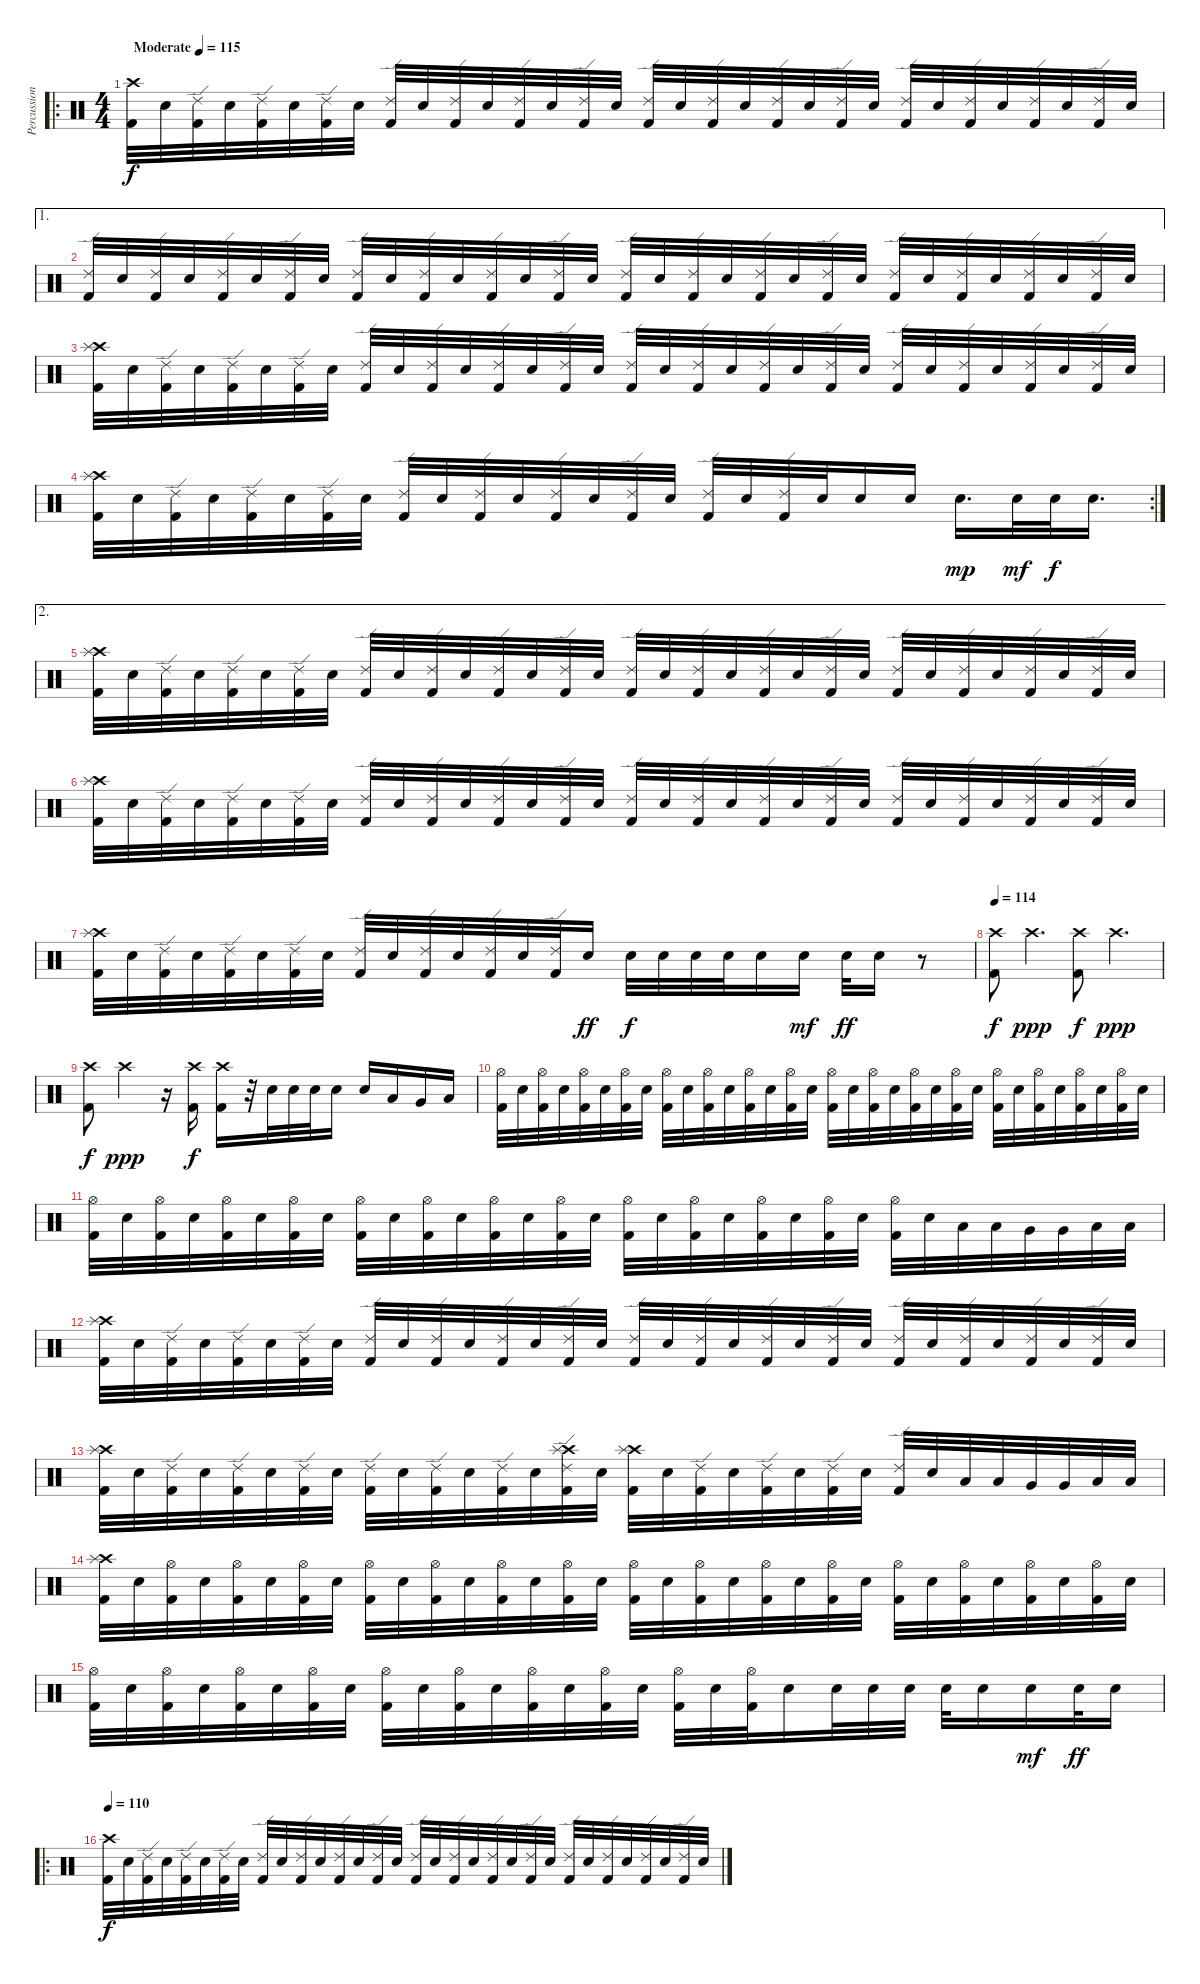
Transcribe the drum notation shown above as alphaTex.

\track ("Percussion" "Percussion") {instrument percussion}
\staff {score}
\articulation defaults
\ro
\ts (4 4)
\tempo (115 "Moderate")
\clef neutral
\ks c
("Crash high (hit)" "Kick (hit) 2").32{dy f} "Snare (hit) 2".32 ("Ride (edge) 2" "Kick (hit) 2").32 "Snare (hit) 2".32 ("Ride (edge) 2" "Kick (hit) 2").32 "Snare (hit) 2".32 ("Ride (edge) 2" "Kick (hit) 2").32 "Snare (hit) 2".32 ("Ride (edge) 2" "Kick (hit) 2").32 "Snare (hit) 2".32 ("Ride (edge) 2" "Kick (hit) 2").32 "Snare (hit) 2".32 ("Ride (edge) 2" "Kick (hit) 2").32 "Snare (hit) 2".32 ("Ride (edge) 2" "Kick (hit) 2").32 "Snare (hit) 2".32 ("Ride (edge) 2" "Kick (hit) 2").32 "Snare (hit) 2".32 ("Ride (edge) 2" "Kick (hit) 2").32 "Snare (hit) 2".32 ("Ride (edge) 2" "Kick (hit) 2").32 "Snare (hit) 2".32 ("Ride (edge) 2" "Kick (hit) 2").32 "Snare (hit) 2".32 ("Ride (edge) 2" "Kick (hit) 2").32 "Snare (hit) 2".32 ("Ride (edge) 2" "Kick (hit) 2").32 "Snare (hit) 2".32 ("Ride (edge) 2" "Kick (hit) 2").32 "Snare (hit) 2".32 ("Ride (edge) 2" "Kick (hit) 2").32 "Snare (hit) 2".32 |
\ae 1
("Ride (edge) 2" "Kick (hit) 2").32 "Snare (hit) 2".32 ("Ride (edge) 2" "Kick (hit) 2").32 "Snare (hit) 2".32 ("Ride (edge) 2" "Kick (hit) 2").32 "Snare (hit) 2".32 ("Ride (edge) 2" "Kick (hit) 2").32 "Snare (hit) 2".32 ("Ride (edge) 2" "Kick (hit) 2").32 "Snare (hit) 2".32 ("Ride (edge) 2" "Kick (hit) 2").32 "Snare (hit) 2".32 ("Ride (edge) 2" "Kick (hit) 2").32 "Snare (hit) 2".32 ("Ride (edge) 2" "Kick (hit) 2").32 "Snare (hit) 2".32 ("Ride (edge) 2" "Kick (hit) 2").32 "Snare (hit) 2".32 ("Ride (edge) 2" "Kick (hit) 2").32 "Snare (hit) 2".32 ("Ride (edge) 2" "Kick (hit) 2").32 "Snare (hit) 2".32 ("Ride (edge) 2" "Kick (hit) 2").32 "Snare (hit) 2".32 ("Ride (edge) 2" "Kick (hit) 2").32 "Snare (hit) 2".32 ("Ride (edge) 2" "Kick (hit) 2").32 "Snare (hit) 2".32 ("Ride (edge) 2" "Kick (hit) 2").32 "Snare (hit) 2".32 ("Ride (edge) 2" "Kick (hit) 2").32 "Snare (hit) 2".32 |
("Crash high (hit)" "Splash (hit)" "Kick (hit) 2").32 "Snare (hit) 2".32 ("Ride (edge) 2" "Kick (hit) 2").32 "Snare (hit) 2".32 ("Ride (edge) 2" "Kick (hit) 2").32 "Snare (hit) 2".32 ("Ride (edge) 2" "Kick (hit) 2").32 "Snare (hit) 2".32 ("Ride (edge) 2" "Kick (hit) 2").32 "Snare (hit) 2".32 ("Ride (edge) 2" "Kick (hit) 2").32 "Snare (hit) 2".32 ("Ride (edge) 2" "Kick (hit) 2").32 "Snare (hit) 2".32 ("Ride (edge) 2" "Kick (hit) 2").32 "Snare (hit) 2".32 ("Ride (edge) 2" "Kick (hit) 2").32 "Snare (hit) 2".32 ("Ride (edge) 2" "Kick (hit) 2").32 "Snare (hit) 2".32 ("Ride (edge) 2" "Kick (hit) 2").32 "Snare (hit) 2".32 ("Ride (edge) 2" "Kick (hit) 2").32 "Snare (hit) 2".32 ("Ride (edge) 2" "Kick (hit) 2").32 "Snare (hit) 2".32 ("Ride (edge) 2" "Kick (hit) 2").32 "Snare (hit) 2".32 ("Ride (edge) 2" "Kick (hit) 2").32 "Snare (hit) 2".32 ("Ride (edge) 2" "Kick (hit) 2").32 "Snare (hit) 2".32 |
\rc 2
("Crash high (hit)" "Splash (hit)" "Kick (hit) 2").32 "Snare (hit) 2".32 ("Ride (edge) 2" "Kick (hit) 2").32 "Snare (hit) 2".32 ("Ride (edge) 2" "Kick (hit) 2").32 "Snare (hit) 2".32 ("Ride (edge) 2" "Kick (hit) 2").32 "Snare (hit) 2".32 ("Ride (edge) 2" "Kick (hit) 2").32 "Snare (hit) 2".32 ("Ride (edge) 2" "Kick (hit) 2").32 "Snare (hit) 2".32 ("Ride (edge) 2" "Kick (hit) 2").32 "Snare (hit) 2".32 ("Ride (edge) 2" "Kick (hit) 2").32 "Snare (hit) 2".32 ("Ride (edge) 2" "Kick (hit) 2").32 "Snare (hit) 2".32 ("Ride (edge) 2" "Kick (hit) 2").32 "Snare (hit) 2".32 "Snare (hit) 2".16 "Snare (hit) 2".16 "Snare (hit) 2".16{d dy mp} "Snare (hit) 2".32{dy mf} "Snare (hit) 2".32{dy f} "Snare (hit) 2".16{d} |
\ae 2
("Crash high (hit)" "Splash (hit)" "Kick (hit) 2").32 "Snare (hit) 2".32 ("Ride (edge) 2" "Kick (hit) 2").32 "Snare (hit) 2".32 ("Ride (edge) 2" "Kick (hit) 2").32 "Snare (hit) 2".32 ("Ride (edge) 2" "Kick (hit) 2").32 "Snare (hit) 2".32 ("Ride (edge) 2" "Kick (hit) 2").32 "Snare (hit) 2".32 ("Ride (edge) 2" "Kick (hit) 2").32 "Snare (hit) 2".32 ("Ride (edge) 2" "Kick (hit) 2").32 "Snare (hit) 2".32 ("Ride (edge) 2" "Kick (hit) 2").32 "Snare (hit) 2".32 ("Ride (edge) 2" "Kick (hit) 2").32 "Snare (hit) 2".32 ("Ride (edge) 2" "Kick (hit) 2").32 "Snare (hit) 2".32 ("Ride (edge) 2" "Kick (hit) 2").32 "Snare (hit) 2".32 ("Ride (edge) 2" "Kick (hit) 2").32 "Snare (hit) 2".32 ("Ride (edge) 2" "Kick (hit) 2").32 "Snare (hit) 2".32 ("Ride (edge) 2" "Kick (hit) 2").32 "Snare (hit) 2".32 ("Ride (edge) 2" "Kick (hit) 2").32 "Snare (hit) 2".32 ("Ride (edge) 2" "Kick (hit) 2").32 "Snare (hit) 2".32 |
("Crash high (hit)" "Splash (hit)" "Kick (hit) 2").32 "Snare (hit) 2".32 ("Ride (edge) 2" "Kick (hit) 2").32 "Snare (hit) 2".32 ("Ride (edge) 2" "Kick (hit) 2").32 "Snare (hit) 2".32 ("Ride (edge) 2" "Kick (hit) 2").32 "Snare (hit) 2".32 ("Ride (edge) 2" "Kick (hit) 2").32 "Snare (hit) 2".32 ("Ride (edge) 2" "Kick (hit) 2").32 "Snare (hit) 2".32 ("Ride (edge) 2" "Kick (hit) 2").32 "Snare (hit) 2".32 ("Ride (edge) 2" "Kick (hit) 2").32 "Snare (hit) 2".32 ("Ride (edge) 2" "Kick (hit) 2").32 "Snare (hit) 2".32 ("Ride (edge) 2" "Kick (hit) 2").32 "Snare (hit) 2".32 ("Ride (edge) 2" "Kick (hit) 2").32 "Snare (hit) 2".32 ("Ride (edge) 2" "Kick (hit) 2").32 "Snare (hit) 2".32 ("Ride (edge) 2" "Kick (hit) 2").32 "Snare (hit) 2".32 ("Ride (edge) 2" "Kick (hit) 2").32 "Snare (hit) 2".32 ("Ride (edge) 2" "Kick (hit) 2").32 "Snare (hit) 2".32 ("Ride (edge) 2" "Kick (hit) 2").32 "Snare (hit) 2".32 |
("Crash high (hit)" "Splash (hit)" "Kick (hit) 2").32 "Snare (hit) 2".32 ("Ride (edge) 2" "Kick (hit) 2").32 "Snare (hit) 2".32 ("Ride (edge) 2" "Kick (hit) 2").32 "Snare (hit) 2".32 ("Ride (edge) 2" "Kick (hit) 2").32 "Snare (hit) 2".32 ("Ride (edge) 2" "Kick (hit) 2").32 "Snare (hit) 2".32 ("Ride (edge) 2" "Kick (hit) 2").32 "Snare (hit) 2".32 ("Ride (edge) 2" "Kick (hit) 2").32 "Snare (hit) 2".32 ("Ride (edge) 2" "Kick (hit) 2").32 "Snare (hit) 2".16{dy ff} "Snare (hit) 2".32{dy f} "Snare (hit) 2".32 "Snare (hit) 2".32 "Snare (hit) 2".32 "Snare (hit) 2".16 "Snare (hit) 2".16{dy mf} "Snare (hit) 2".32{dy ff} "Snare (hit) 2".16 r.8 |
\tempo 114
("Crash high (hit)" "Kick (hit) 2").8{dy f} "Crash high (hit)".4{d dy ppp} ("Crash high (hit)" "Kick (hit) 2").8{dy f} "Crash high (hit)".4{d dy ppp} |
("Crash high (hit)" "Kick (hit) 2").8{dy f} "Crash high (hit)".4{dy ppp} r.16 ("Crash high (hit)" "Kick (hit) 2").16{dy f} ("Crash high (hit)" "Kick (hit) 2").16 r.32 "Snare (hit) 2".32 "Snare (hit) 2".32 "Snare (hit) 2".32 "Snare (hit) 2".16 "Snare (hit) 2".16 "Low Tom (hit)".16 "Very Low Tom (hit)".16 "Low Floor Tom (hit)".16 |
("Hi-Hat (open)" "Kick (hit) 2").32 "Snare (hit) 2".32 ("Hi-Hat (open)" "Kick (hit) 2").32 "Snare (hit) 2".32 ("Hi-Hat (open)" "Kick (hit) 2").32 "Snare (hit) 2".32 ("Hi-Hat (open)" "Kick (hit) 2").32 "Snare (hit) 2".32 ("Hi-Hat (open)" "Kick (hit) 2").32 "Snare (hit) 2".32 ("Hi-Hat (open)" "Kick (hit) 2").32 "Snare (hit) 2".32 ("Hi-Hat (open)" "Kick (hit) 2").32 "Snare (hit) 2".32 ("Hi-Hat (open)" "Kick (hit) 2").32 "Snare (hit) 2".32 ("Hi-Hat (open)" "Kick (hit) 2").32 "Snare (hit) 2".32 ("Hi-Hat (open)" "Kick (hit) 2").32 "Snare (hit) 2".32 ("Hi-Hat (open)" "Kick (hit) 2").32 "Snare (hit) 2".32 ("Hi-Hat (open)" "Kick (hit) 2").32 "Snare (hit) 2".32 ("Hi-Hat (open)" "Kick (hit) 2").32 "Snare (hit) 2".32 ("Hi-Hat (open)" "Kick (hit) 2").32 "Snare (hit) 2".32 ("Hi-Hat (open)" "Kick (hit) 2").32 "Snare (hit) 2".32 ("Hi-Hat (open)" "Kick (hit) 2").32 "Snare (hit) 2".32 |
("Hi-Hat (open)" "Kick (hit) 2").32 "Snare (hit) 2".32 ("Hi-Hat (open)" "Kick (hit) 2").32 "Snare (hit) 2".32 ("Hi-Hat (open)" "Kick (hit) 2").32 "Snare (hit) 2".32 ("Hi-Hat (open)" "Kick (hit) 2").32 "Snare (hit) 2".32 ("Hi-Hat (open)" "Kick (hit) 2").32 "Snare (hit) 2".32 ("Hi-Hat (open)" "Kick (hit) 2").32 "Snare (hit) 2".32 ("Hi-Hat (open)" "Kick (hit) 2").32 "Snare (hit) 2".32 ("Hi-Hat (open)" "Kick (hit) 2").32 "Snare (hit) 2".32 ("Hi-Hat (open)" "Kick (hit) 2").32 "Snare (hit) 2".32 ("Hi-Hat (open)" "Kick (hit) 2").32 "Snare (hit) 2".32 ("Hi-Hat (open)" "Kick (hit) 2").32 "Snare (hit) 2".32 ("Hi-Hat (open)" "Kick (hit) 2").32 "Snare (hit) 2".32 ("Hi-Hat (open)" "Kick (hit) 2").32 "Snare (hit) 2".32 "Low Tom (hit)".32 "Low Tom (hit)".32 "Very Low Tom (hit)".32 "Very Low Tom (hit)".32 "Low Floor Tom (hit)".32 "Low Floor Tom (hit)".32 |
("Crash high (hit)" "Splash (hit)" "Kick (hit) 2").32 "Snare (hit) 2".32 ("Ride (edge) 2" "Kick (hit) 2").32 "Snare (hit) 2".32 ("Ride (edge) 2" "Kick (hit) 2").32 "Snare (hit) 2".32 ("Ride (edge) 2" "Kick (hit) 2").32 "Snare (hit) 2".32 ("Ride (edge) 2" "Kick (hit) 2").32 "Snare (hit) 2".32 ("Ride (edge) 2" "Kick (hit) 2").32 "Snare (hit) 2".32 ("Ride (edge) 2" "Kick (hit) 2").32 "Snare (hit) 2".32 ("Ride (edge) 2" "Kick (hit) 2").32 "Snare (hit) 2".32 ("Ride (edge) 2" "Kick (hit) 2").32 "Snare (hit) 2".32 ("Ride (edge) 2" "Kick (hit) 2").32 "Snare (hit) 2".32 ("Ride (edge) 2" "Kick (hit) 2").32 "Snare (hit) 2".32 ("Ride (edge) 2" "Kick (hit) 2").32 "Snare (hit) 2".32 ("Ride (edge) 2" "Kick (hit) 2").32 "Snare (hit) 2".32 ("Ride (edge) 2" "Kick (hit) 2").32 "Snare (hit) 2".32 ("Ride (edge) 2" "Kick (hit) 2").32 "Snare (hit) 2".32 ("Ride (edge) 2" "Kick (hit) 2").32 "Snare (hit) 2".32 |
("Crash high (hit)" "Splash (hit)" "Kick (hit) 2").32 "Snare (hit) 2".32 ("Ride (edge) 2" "Kick (hit) 2").32 "Snare (hit) 2".32 ("Ride (edge) 2" "Kick (hit) 2").32 "Snare (hit) 2".32 ("Ride (edge) 2" "Kick (hit) 2").32 "Snare (hit) 2".32 ("Ride (edge) 2" "Kick (hit) 2").32 "Snare (hit) 2".32 ("Ride (edge) 2" "Kick (hit) 2").32 "Snare (hit) 2".32 ("Ride (edge) 2" "Kick (hit) 2").32 "Snare (hit) 2".32 ("Crash high (hit)" "Splash (hit)" "Ride (edge) 2" "Kick (hit) 2").32 "Snare (hit) 2".32 ("Crash high (hit)" "Splash (hit)" "Kick (hit) 2").32 "Snare (hit) 2".32 ("Ride (edge) 2" "Kick (hit) 2").32 "Snare (hit) 2".32 ("Ride (edge) 2" "Kick (hit) 2").32 "Snare (hit) 2".32 ("Ride (edge) 2" "Kick (hit) 2").32 "Snare (hit) 2".32 ("Ride (edge) 2" "Kick (hit) 2").32 "Snare (hit) 2".32 "Low Tom (hit)".32 "Low Tom (hit)".32 "Very Low Tom (hit)".32 "Very Low Tom (hit)".32 "Low Floor Tom (hit)".32 "Low Floor Tom (hit)".32 |
("Crash high (hit)" "Splash (hit)" "Kick (hit) 2").32 "Snare (hit) 2".32 ("Hi-Hat (open)" "Kick (hit) 2").32 "Snare (hit) 2".32 ("Hi-Hat (open)" "Kick (hit) 2").32 "Snare (hit) 2".32 ("Hi-Hat (open)" "Kick (hit) 2").32 "Snare (hit) 2".32 ("Hi-Hat (open)" "Kick (hit) 2").32 "Snare (hit) 2".32 ("Hi-Hat (open)" "Kick (hit) 2").32 "Snare (hit) 2".32 ("Hi-Hat (open)" "Kick (hit) 2").32 "Snare (hit) 2".32 ("Hi-Hat (open)" "Kick (hit) 2").32 "Snare (hit) 2".32 ("Hi-Hat (open)" "Kick (hit) 2").32 "Snare (hit) 2".32 ("Hi-Hat (open)" "Kick (hit) 2").32 "Snare (hit) 2".32 ("Hi-Hat (open)" "Kick (hit) 2").32 "Snare (hit) 2".32 ("Hi-Hat (open)" "Kick (hit) 2").32 "Snare (hit) 2".32 ("Hi-Hat (open)" "Kick (hit) 2").32 "Snare (hit) 2".32 ("Hi-Hat (open)" "Kick (hit) 2").32 "Snare (hit) 2".32 ("Hi-Hat (open)" "Kick (hit) 2").32 "Snare (hit) 2".32 ("Hi-Hat (open)" "Kick (hit) 2").32 "Snare (hit) 2".32 |
("Hi-Hat (open)" "Kick (hit) 2").32 "Snare (hit) 2".32 ("Hi-Hat (open)" "Kick (hit) 2").32 "Snare (hit) 2".32 ("Hi-Hat (open)" "Kick (hit) 2").32 "Snare (hit) 2".32 ("Hi-Hat (open)" "Kick (hit) 2").32 "Snare (hit) 2".32 ("Hi-Hat (open)" "Kick (hit) 2").32 "Snare (hit) 2".32 ("Hi-Hat (open)" "Kick (hit) 2").32 "Snare (hit) 2".32 ("Hi-Hat (open)" "Kick (hit) 2").32 "Snare (hit) 2".32 ("Hi-Hat (open)" "Kick (hit) 2").32 "Snare (hit) 2".32 ("Hi-Hat (open)" "Kick (hit) 2").32 "Snare (hit) 2".32 ("Hi-Hat (open)" "Kick (hit) 2").32 "Snare (hit) 2".16 "Snare (hit) 2".32 "Snare (hit) 2".32 "Snare (hit) 2".32 "Snare (hit) 2".32 "Snare (hit) 2".16 "Snare (hit) 2".16{dy mf} "Snare (hit) 2".32{dy ff} "Snare (hit) 2".16 |
\ro
\tempo 110
("Crash high (hit)" "Kick (hit) 2").32{dy f} "Snare (hit) 2".32 ("Ride (edge) 2" "Kick (hit) 2").32 "Snare (hit) 2".32 ("Ride (edge) 2" "Kick (hit) 2").32 "Snare (hit) 2".32 ("Ride (edge) 2" "Kick (hit) 2").32 "Snare (hit) 2".32 ("Ride (edge) 2" "Kick (hit) 2").32 "Snare (hit) 2".32 ("Ride (edge) 2" "Kick (hit) 2").32 "Snare (hit) 2".32 ("Ride (edge) 2" "Kick (hit) 2").32 "Snare (hit) 2".32 ("Ride (edge) 2" "Kick (hit) 2").32 "Snare (hit) 2".32 ("Ride (edge) 2" "Kick (hit) 2").32 "Snare (hit) 2".32 ("Ride (edge) 2" "Kick (hit) 2").32 "Snare (hit) 2".32 ("Ride (edge) 2" "Kick (hit) 2").32 "Snare (hit) 2".32 ("Ride (edge) 2" "Kick (hit) 2").32 "Snare (hit) 2".32 ("Ride (edge) 2" "Kick (hit) 2").32 "Snare (hit) 2".32 ("Ride (edge) 2" "Kick (hit) 2").32 "Snare (hit) 2".32 ("Ride (edge) 2" "Kick (hit) 2").32 "Snare (hit) 2".32 ("Ride (edge) 2" "Kick (hit) 2").32 "Snare (hit) 2".32
